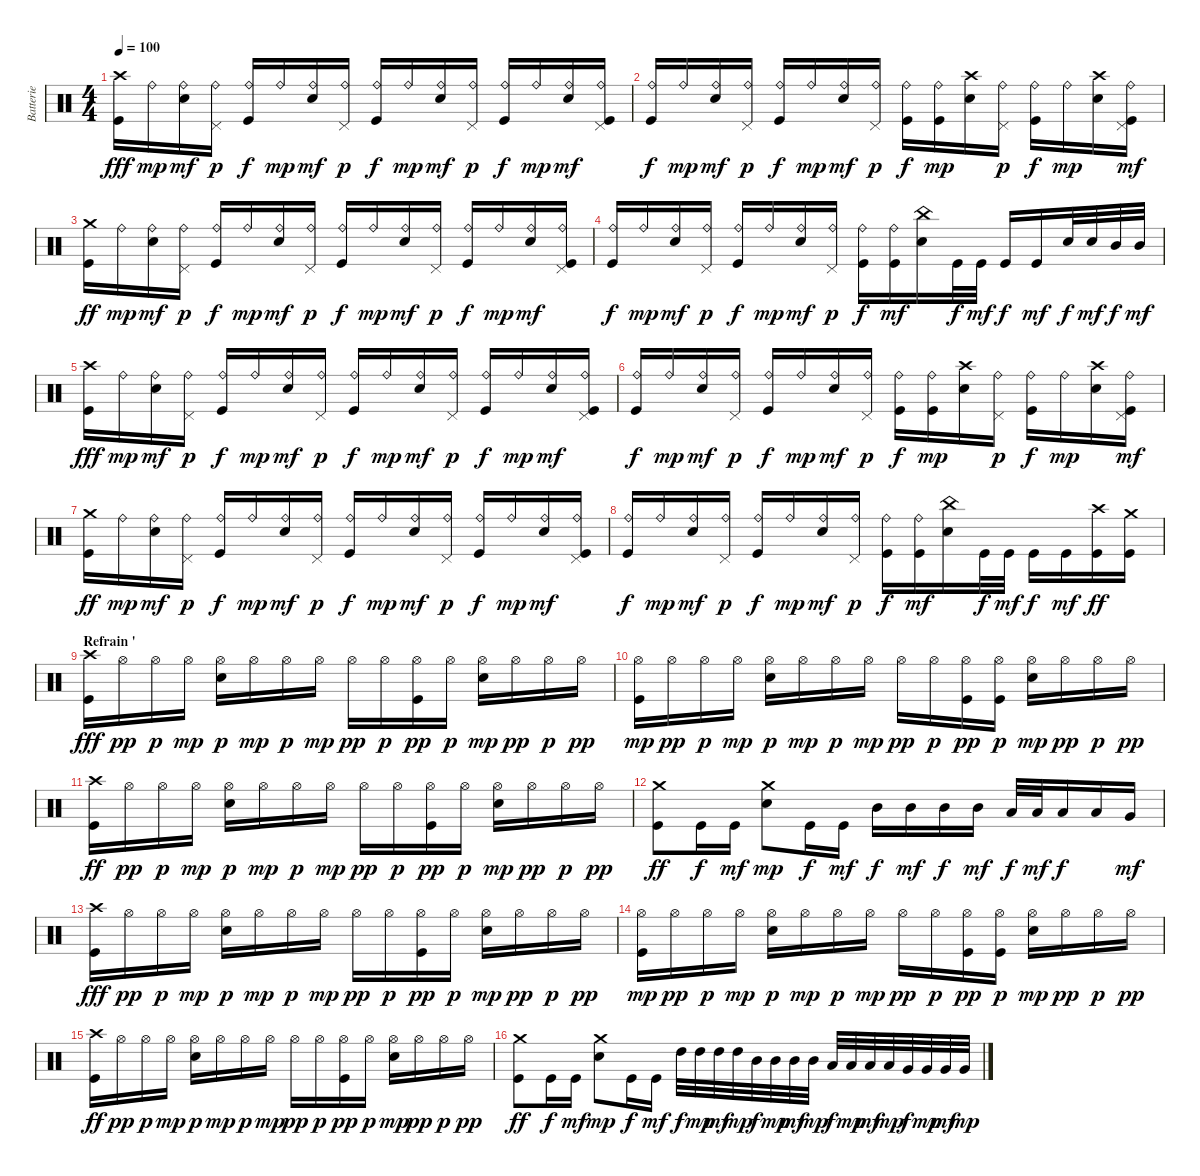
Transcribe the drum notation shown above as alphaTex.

\track ("Batterie" "Batterie") {instrument percussion}
\staff {score}
\articulation defaults
\ts (4 4)
\tempo 100
\clef neutral
\ks c
("Crash high (hit)" "Kick (hit)").16{dy fff} "Ride (bell)".16{dy mp} ("Ride (bell)" "Snare (hit) 2").16{dy mf} ("Ride (bell)" "Pedal Hi-Hat (hit)").16{dy p} ("Ride (bell)" "Kick (hit)").16{dy f} "Ride (bell)".16{dy mp} ("Ride (bell)" "Snare (hit) 2").16{dy mf} ("Ride (bell)" "Pedal Hi-Hat (hit)").16{dy p} ("Ride (bell)" "Kick (hit)").16{dy f} "Ride (bell)".16{dy mp} ("Ride (bell)" "Snare (hit) 2").16{dy mf} ("Ride (bell)" "Pedal Hi-Hat (hit)").16{dy p} ("Ride (bell)" "Kick (hit)").16{dy f} "Ride (bell)".16{dy mp} ("Ride (bell)" "Snare (hit) 2").16{dy mf} ("Ride (bell)" "Pedal Hi-Hat (hit)" "Kick (hit)").16 |
("Ride (bell)" "Kick (hit)").16{dy f} "Ride (bell)".16{dy mp} ("Ride (bell)" "Snare (hit) 2").16{dy mf} ("Ride (bell)" "Pedal Hi-Hat (hit)").16{dy p} ("Ride (bell)" "Kick (hit)").16{dy f} "Ride (bell)".16{dy mp} ("Ride (bell)" "Snare (hit) 2").16{dy mf} ("Ride (bell)" "Pedal Hi-Hat (hit)").16{dy p} ("Ride (bell)" "Kick (hit)").16{dy f} ("Ride (bell)" "Kick (hit)").16{dy mp} ("Crash high (hit)" "Snare (hit) 2").16 ("Ride (bell)" "Pedal Hi-Hat (hit)").16{dy p} ("Ride (bell)" "Kick (hit)").16{dy f} "Ride (bell)".16{dy mp} ("Crash high (hit)" "Snare (hit) 2").16 ("Ride (bell)" "Pedal Hi-Hat (hit)" "Kick (hit)").16{dy mf} |
("Crash medium (hit)" "Kick (hit)").16{dy ff} "Ride (bell)".16{dy mp} ("Ride (bell)" "Snare (hit) 2").16{dy mf} ("Ride (bell)" "Pedal Hi-Hat (hit)").16{dy p} ("Ride (bell)" "Kick (hit)").16{dy f} "Ride (bell)".16{dy mp} ("Ride (bell)" "Snare (hit) 2").16{dy mf} ("Ride (bell)" "Pedal Hi-Hat (hit)").16{dy p} ("Ride (bell)" "Kick (hit)").16{dy f} "Ride (bell)".16{dy mp} ("Ride (bell)" "Snare (hit) 2").16{dy mf} ("Ride (bell)" "Pedal Hi-Hat (hit)").16{dy p} ("Ride (bell)" "Kick (hit)").16{dy f} "Ride (bell)".16{dy mp} ("Ride (bell)" "Snare (hit) 2").16{dy mf} ("Ride (bell)" "Pedal Hi-Hat (hit)" "Kick (hit)").16 |
("Ride (bell)" "Kick (hit)").16{dy f} "Ride (bell)".16{dy mp} ("Ride (bell)" "Snare (hit) 2").16{dy mf} ("Ride (bell)" "Pedal Hi-Hat (hit)").16{dy p} ("Ride (bell)" "Kick (hit)").16{dy f} "Ride (bell)".16{dy mp} ("Ride (bell)" "Snare (hit) 2").16{dy mf} ("Ride (bell)" "Pedal Hi-Hat (hit)").16{dy p} ("Ride (bell)" "Kick (hit)").16{dy f} ("Ride (bell)" "Kick (hit)").16{dy mf} ("China (hit)" "Snare (hit) 2").16 "Kick (hit)".32{dy f} "Kick (hit)".32{dy mf} "Kick (hit)".16{dy f} "Kick (hit)".16{dy mf} "Snare (hit) 2".32{dy f} "Snare (hit) 2".32{dy mf} "Mid Tom (hit)".32{dy f} "Mid Tom (hit)".32{dy mf} |
("Crash high (hit)" "Kick (hit)").16{dy fff} "Ride (bell)".16{dy mp} ("Ride (bell)" "Snare (hit) 2").16{dy mf} ("Ride (bell)" "Pedal Hi-Hat (hit)").16{dy p} ("Ride (bell)" "Kick (hit)").16{dy f} "Ride (bell)".16{dy mp} ("Ride (bell)" "Snare (hit) 2").16{dy mf} ("Ride (bell)" "Pedal Hi-Hat (hit)").16{dy p} ("Ride (bell)" "Kick (hit)").16{dy f} "Ride (bell)".16{dy mp} ("Ride (bell)" "Snare (hit) 2").16{dy mf} ("Ride (bell)" "Pedal Hi-Hat (hit)").16{dy p} ("Ride (bell)" "Kick (hit)").16{dy f} "Ride (bell)".16{dy mp} ("Ride (bell)" "Snare (hit) 2").16{dy mf} ("Ride (bell)" "Pedal Hi-Hat (hit)" "Kick (hit)").16 |
("Ride (bell)" "Kick (hit)").16{dy f} "Ride (bell)".16{dy mp} ("Ride (bell)" "Snare (hit) 2").16{dy mf} ("Ride (bell)" "Pedal Hi-Hat (hit)").16{dy p} ("Ride (bell)" "Kick (hit)").16{dy f} "Ride (bell)".16{dy mp} ("Ride (bell)" "Snare (hit) 2").16{dy mf} ("Ride (bell)" "Pedal Hi-Hat (hit)").16{dy p} ("Ride (bell)" "Kick (hit)").16{dy f} ("Ride (bell)" "Kick (hit)").16{dy mp} ("Crash high (hit)" "Snare (hit) 2").16 ("Ride (bell)" "Pedal Hi-Hat (hit)").16{dy p} ("Ride (bell)" "Kick (hit)").16{dy f} "Ride (bell)".16{dy mp} ("Crash high (hit)" "Snare (hit) 2").16 ("Ride (bell)" "Pedal Hi-Hat (hit)" "Kick (hit)").16{dy mf} |
("Crash medium (hit)" "Kick (hit)").16{dy ff} "Ride (bell)".16{dy mp} ("Ride (bell)" "Snare (hit) 2").16{dy mf} ("Ride (bell)" "Pedal Hi-Hat (hit)").16{dy p} ("Ride (bell)" "Kick (hit)").16{dy f} "Ride (bell)".16{dy mp} ("Ride (bell)" "Snare (hit) 2").16{dy mf} ("Ride (bell)" "Pedal Hi-Hat (hit)").16{dy p} ("Ride (bell)" "Kick (hit)").16{dy f} "Ride (bell)".16{dy mp} ("Ride (bell)" "Snare (hit) 2").16{dy mf} ("Ride (bell)" "Pedal Hi-Hat (hit)").16{dy p} ("Ride (bell)" "Kick (hit)").16{dy f} "Ride (bell)".16{dy mp} ("Ride (bell)" "Snare (hit) 2").16{dy mf} ("Ride (bell)" "Pedal Hi-Hat (hit)" "Kick (hit)").16 |
("Ride (bell)" "Kick (hit)").16{dy f} "Ride (bell)".16{dy mp} ("Ride (bell)" "Snare (hit) 2").16{dy mf} ("Ride (bell)" "Pedal Hi-Hat (hit)").16{dy p} ("Ride (bell)" "Kick (hit)").16{dy f} "Ride (bell)".16{dy mp} ("Ride (bell)" "Snare (hit) 2").16{dy mf} ("Ride (bell)" "Pedal Hi-Hat (hit)").16{dy p} ("Ride (bell)" "Kick (hit)").16{dy f} ("Ride (bell)" "Kick (hit)").16{dy mf} ("China (hit)" "Snare (hit) 2").16 "Kick (hit)".32{dy f} "Kick (hit)".32{dy mf} "Kick (hit)".16{dy f} "Kick (hit)".16{dy mf} ("Crash high (hit)" "Kick (hit)").16{dy ff} ("Crash medium (hit)" "Kick (hit)").16 |
\section ("" "Refrain '")
("Crash high (hit)" "Kick (hit)").16{dy fff} "Hi-Hat (open)".16{dy pp} "Hi-Hat (open)".16{dy p} "Hi-Hat (open)".16{dy mp} ("Hi-Hat (open)" "Snare (hit) 2").16{dy p} "Hi-Hat (open)".16{dy mp} "Hi-Hat (open)".16{dy p} "Hi-Hat (open)".16{dy mp} "Hi-Hat (open)".16{dy pp} "Hi-Hat (open)".16{dy p} ("Hi-Hat (open)" "Kick (hit)").16{dy pp} "Hi-Hat (open)".16{dy p} ("Hi-Hat (open)" "Snare (hit) 2").16{dy mp} "Hi-Hat (open)".16{dy pp} "Hi-Hat (open)".16{dy p} "Hi-Hat (open)".16{dy pp} |
("Hi-Hat (open)" "Kick (hit)").16{dy mp} "Hi-Hat (open)".16{dy pp} "Hi-Hat (open)".16{dy p} "Hi-Hat (open)".16{dy mp} ("Hi-Hat (open)" "Snare (hit) 2").16{dy p} "Hi-Hat (open)".16{dy mp} "Hi-Hat (open)".16{dy p} "Hi-Hat (open)".16{dy mp} "Hi-Hat (open)".16{dy pp} "Hi-Hat (open)".16{dy p} ("Hi-Hat (open)" "Kick (hit)").16{dy pp} ("Hi-Hat (open)" "Kick (hit)").16{dy p} ("Hi-Hat (open)" "Snare (hit) 2").16{dy mp} "Hi-Hat (open)".16{dy pp} "Hi-Hat (open)".16{dy p} "Hi-Hat (open)".16{dy pp} |
("Crash high (hit)" "Kick (hit)").16{dy ff} "Hi-Hat (open)".16{dy pp} "Hi-Hat (open)".16{dy p} "Hi-Hat (open)".16{dy mp} ("Hi-Hat (open)" "Snare (hit) 2").16{dy p} "Hi-Hat (open)".16{dy mp} "Hi-Hat (open)".16{dy p} "Hi-Hat (open)".16{dy mp} "Hi-Hat (open)".16{dy pp} "Hi-Hat (open)".16{dy p} ("Hi-Hat (open)" "Kick (hit)").16{dy pp} "Hi-Hat (open)".16{dy p} ("Hi-Hat (open)" "Snare (hit) 2").16{dy mp} "Hi-Hat (open)".16{dy pp} "Hi-Hat (open)".16{dy p} "Hi-Hat (open)".16{dy pp} |
("Crash medium (hit)" "Kick (hit)").8{dy ff} "Kick (hit)".16{dy f} "Kick (hit)".16{dy mf} ("Crash medium (hit)" "Snare (hit) 2").8{dy mp} "Kick (hit)".16{dy f} "Kick (hit)".16{dy mf} "Mid Tom (hit)".16{dy f} "Mid Tom (hit)".16{dy mf} "Mid Tom (hit)".16{dy f} "Mid Tom (hit)".16{dy mf} "Low Tom (hit)".32{dy f} "Low Tom (hit)".32{dy mf} "Low Tom (hit)".16{dy f} "Low Tom (hit)".16 "Very Low Tom (hit)".16{dy mf} |
("Crash high (hit)" "Kick (hit)").16{dy fff} "Hi-Hat (open)".16{dy pp} "Hi-Hat (open)".16{dy p} "Hi-Hat (open)".16{dy mp} ("Hi-Hat (open)" "Snare (hit) 2").16{dy p} "Hi-Hat (open)".16{dy mp} "Hi-Hat (open)".16{dy p} "Hi-Hat (open)".16{dy mp} "Hi-Hat (open)".16{dy pp} "Hi-Hat (open)".16{dy p} ("Hi-Hat (open)" "Kick (hit)").16{dy pp} "Hi-Hat (open)".16{dy p} ("Hi-Hat (open)" "Snare (hit) 2").16{dy mp} "Hi-Hat (open)".16{dy pp} "Hi-Hat (open)".16{dy p} "Hi-Hat (open)".16{dy pp} |
("Hi-Hat (open)" "Kick (hit)").16{dy mp} "Hi-Hat (open)".16{dy pp} "Hi-Hat (open)".16{dy p} "Hi-Hat (open)".16{dy mp} ("Hi-Hat (open)" "Snare (hit) 2").16{dy p} "Hi-Hat (open)".16{dy mp} "Hi-Hat (open)".16{dy p} "Hi-Hat (open)".16{dy mp} "Hi-Hat (open)".16{dy pp} "Hi-Hat (open)".16{dy p} ("Hi-Hat (open)" "Kick (hit)").16{dy pp} ("Hi-Hat (open)" "Kick (hit)").16{dy p} ("Hi-Hat (open)" "Snare (hit) 2").16{dy mp} "Hi-Hat (open)".16{dy pp} "Hi-Hat (open)".16{dy p} "Hi-Hat (open)".16{dy pp} |
("Crash high (hit)" "Kick (hit)").16{dy ff} "Hi-Hat (open)".16{dy pp} "Hi-Hat (open)".16{dy p} "Hi-Hat (open)".16{dy mp} ("Hi-Hat (open)" "Snare (hit) 2").16{dy p} "Hi-Hat (open)".16{dy mp} "Hi-Hat (open)".16{dy p} "Hi-Hat (open)".16{dy mp} "Hi-Hat (open)".16{dy pp} "Hi-Hat (open)".16{dy p} ("Hi-Hat (open)" "Kick (hit)").16{dy pp} "Hi-Hat (open)".16{dy p} ("Hi-Hat (open)" "Snare (hit) 2").16{dy mp} "Hi-Hat (open)".16{dy pp} "Hi-Hat (open)".16{dy p} "Hi-Hat (open)".16{dy pp} |
("Crash medium (hit)" "Kick (hit)").8{dy ff} "Kick (hit)".16{dy f} "Kick (hit)".16{dy mf} ("Crash medium (hit)" "Snare (hit) 2").8{dy mp} "Kick (hit)".16{dy f} "Kick (hit)".16{dy mf} "High Tom (hit)".32{dy f} "High Tom (hit)".32{dy mp} "High Tom (hit)".32{dy mf} "High Tom (hit)".32{dy mp} "Mid Tom (hit)".32{dy f} "Mid Tom (hit)".32{dy mp} "Mid Tom (hit)".32{dy mf} "Mid Tom (hit)".32{dy mp} "Low Tom (hit)".32{dy f} "Low Tom (hit)".32{dy mp} "Low Tom (hit)".32{dy mf} "Low Tom (hit)".32{dy mp} "Very Low Tom (hit)".32{dy f} "Very Low Tom (hit)".32{dy mp} "Very Low Tom (hit)".32{dy mf} "Very Low Tom (hit)".32{dy mp}
